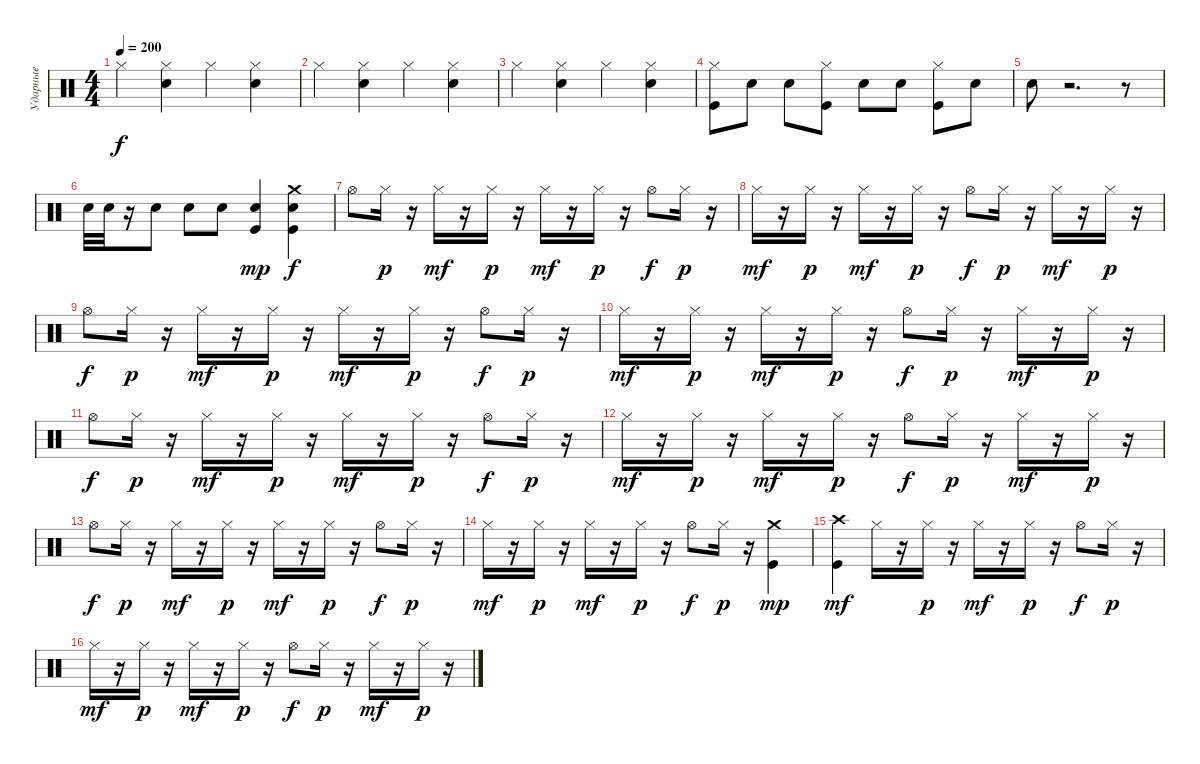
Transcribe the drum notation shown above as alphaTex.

\track ("Ударные" "Ударные") {instrument percussion}
\staff {score}
\articulation defaults
\ts (4 4)
\tempo 200
\clef neutral
\ks c "Hi-Hat (closed)".4{dy f}
("Snare (hit) 2" "Hi-Hat (closed)").4 "Hi-Hat (closed)".4 ("Snare (hit) 2" "Hi-Hat (closed)").4 |
"Hi-Hat (closed)".4 ("Snare (hit) 2" "Hi-Hat (closed)").4 "Hi-Hat (closed)".4 ("Snare (hit) 2" "Hi-Hat (closed)").4 |
"Hi-Hat (closed)".4 ("Snare (hit) 2" "Hi-Hat (closed)").4 "Hi-Hat (closed)".4 ("Snare (hit) 2" "Hi-Hat (closed)").4 |
("Hi-Hat (closed)" "Kick (hit)").8 "Electric Snare (hit)".8 "Electric Snare (hit)".8 ("Hi-Hat (closed)" "Kick (hit)").8 "Electric Snare (hit)".8 "Electric Snare (hit)".8 ("Hi-Hat (closed)" "Kick (hit)").8 "Electric Snare (hit)".8 |
"Electric Snare (hit)".8 r.2{d} r.8 |
"Electric Snare (hit)".32{volume 11 balance 8} "Electric Snare (hit)".32 r.16 "Electric Snare (hit)".8 "Electric Snare (hit)".8 "Electric Snare (hit)".8 ("Kick (hit)" "Electric Snare (hit)").4{dy mp} ("Kick (hit)" "Crash medium (hit)" "Electric Snare (hit)").4{dy f} |
"Hi-Hat (open)".8 "Hi-Hat (closed)".16{dy p} r.16 "Hi-Hat (closed)".16{dy mf} r.16 "Hi-Hat (closed)".16{dy p} r.16 "Hi-Hat (closed)".16{dy mf} r.16 "Hi-Hat (closed)".16{dy p} r.16 "Hi-Hat (open)".8{dy f} "Hi-Hat (closed)".16{dy p} r.16 |
"Hi-Hat (closed)".16{dy mf} r.16 "Hi-Hat (closed)".16{dy p} r.16 "Hi-Hat (closed)".16{dy mf} r.16 "Hi-Hat (closed)".16{dy p} r.16 "Hi-Hat (open)".8{dy f} "Hi-Hat (closed)".16{dy p} r.16 "Hi-Hat (closed)".16{dy mf} r.16 "Hi-Hat (closed)".16{dy p} r.16 |
"Hi-Hat (open)".8{dy f} "Hi-Hat (closed)".16{dy p} r.16 "Hi-Hat (closed)".16{dy mf} r.16 "Hi-Hat (closed)".16{dy p} r.16 "Hi-Hat (closed)".16{dy mf} r.16 "Hi-Hat (closed)".16{dy p} r.16 "Hi-Hat (open)".8{dy f} "Hi-Hat (closed)".16{dy p} r.16 |
"Hi-Hat (closed)".16{dy mf} r.16 "Hi-Hat (closed)".16{dy p} r.16 "Hi-Hat (closed)".16{dy mf} r.16 "Hi-Hat (closed)".16{dy p} r.16 "Hi-Hat (open)".8{dy f} "Hi-Hat (closed)".16{dy p} r.16 "Hi-Hat (closed)".16{dy mf} r.16 "Hi-Hat (closed)".16{dy p} r.16 |
"Hi-Hat (open)".8{dy f} "Hi-Hat (closed)".16{dy p} r.16 "Hi-Hat (closed)".16{dy mf} r.16 "Hi-Hat (closed)".16{dy p} r.16 "Hi-Hat (closed)".16{dy mf} r.16 "Hi-Hat (closed)".16{dy p} r.16 "Hi-Hat (open)".8{dy f} "Hi-Hat (closed)".16{dy p} r.16 |
"Hi-Hat (closed)".16{dy mf} r.16 "Hi-Hat (closed)".16{dy p} r.16 "Hi-Hat (closed)".16{dy mf} r.16 "Hi-Hat (closed)".16{dy p} r.16 "Hi-Hat (open)".8{dy f} "Hi-Hat (closed)".16{dy p} r.16 "Hi-Hat (closed)".16{dy mf} r.16 "Hi-Hat (closed)".16{dy p} r.16 |
"Hi-Hat (open)".8{dy f} "Hi-Hat (closed)".16{dy p} r.16 "Hi-Hat (closed)".16{dy mf} r.16 "Hi-Hat (closed)".16{dy p} r.16 "Hi-Hat (closed)".16{dy mf} r.16 "Hi-Hat (closed)".16{dy p} r.16 "Hi-Hat (open)".8{dy f} "Hi-Hat (closed)".16{dy p} r.16 |
"Hi-Hat (closed)".16{dy mf} r.16 "Hi-Hat (closed)".16{dy p} r.16 "Hi-Hat (closed)".16{dy mf} r.16 "Hi-Hat (closed)".16{dy p} r.16 "Hi-Hat (open)".8{dy f} "Hi-Hat (closed)".16{dy p} r.16 ("Crash medium (hit)" "Kick (hit)").4{dy mp} |
("Crash high (hit)" "Kick (hit)").4{dy mf} "Hi-Hat (closed)".16 r.16 "Hi-Hat (closed)".16{dy p} r.16 "Hi-Hat (closed)".16{dy mf} r.16 "Hi-Hat (closed)".16{dy p} r.16 "Hi-Hat (open)".8{dy f} "Hi-Hat (closed)".16{dy p} r.16 |
"Hi-Hat (closed)".16{dy mf} r.16 "Hi-Hat (closed)".16{dy p} r.16 "Hi-Hat (closed)".16{dy mf} r.16 "Hi-Hat (closed)".16{dy p} r.16 "Hi-Hat (open)".8{dy f} "Hi-Hat (closed)".16{dy p} r.16 "Hi-Hat (closed)".16{dy mf} r.16 "Hi-Hat (closed)".16{dy p} r.16
